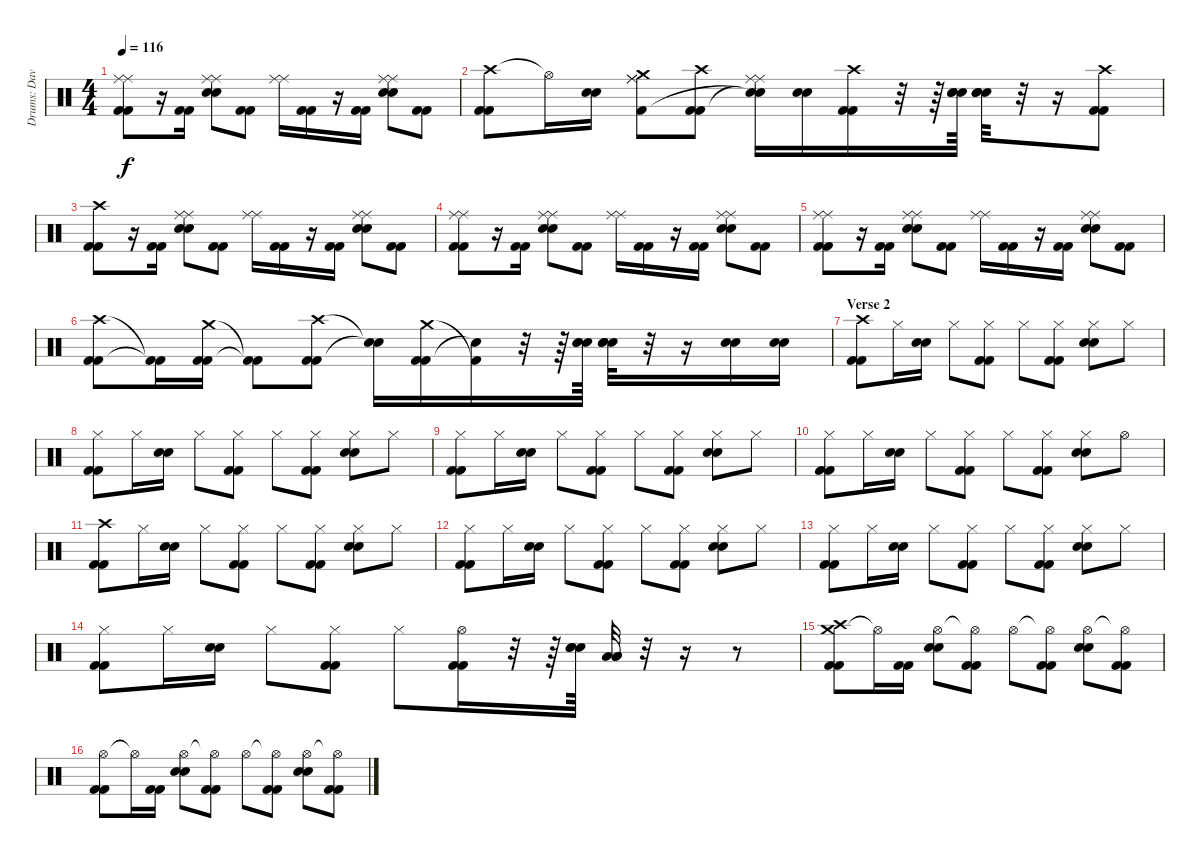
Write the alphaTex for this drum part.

\track ("Drums: Dave Krusen" "Drums: Dav") {instrument percussion}
\staff {score}
\articulation defaults
\ts (4 4)
\tempo 116
\clef neutral
\ks c
("Ride (middle)" "Ride (middle)" "Kick (hit) 2" "Kick (hit) 2").8{dy f} r.16 ("Kick (hit) 2" "Kick (hit) 2").16 ("Ride (middle)" "Ride (middle)" "Electric Snare (hit)" "Electric Snare (hit)").8 ("Kick (hit) 2" "Kick (hit) 2").8 ("Ride (middle)" "Ride (middle)").16 ("Kick (hit) 2" "Kick (hit) 2").16 r.16 ("Kick (hit) 2" "Kick (hit) 2").16 ("Ride (middle)" "Ride (middle)" "Electric Snare (hit)" "Electric Snare (hit)").8 ("Kick (hit) 2" "Kick (hit) 2").8 |
("Crash high (hit)" "Kick (hit) 2" "Kick (hit) 2").8 "Hi-Hat (open)"{t}.16 ("Electric Snare (hit)" "Electric Snare (hit)").16 ("Ride (middle)" "Ride (middle)" "Crash medium (hit)" "Kick (hit) 2").8 ("Crash high (hit)" "Kick (hit) 2" "Kick (hit) 2").8 ("Ride (middle)" "Ride (middle)" "Electric Snare (hit)"{t} "Snare (hit)"{t}).16 ("Electric Snare (hit)" "Electric Snare (hit)").16 ("Crash high (hit)" "Kick (hit) 2" "Kick (hit) 2").16 r.32 r.64 ("Electric Snare (hit)" "Electric Snare (hit)" "Electric Snare (hit)").64 ("Electric Snare (hit)" "Electric Snare (hit)" "Electric Snare (hit)").32 r.32 r.16 ("Crash high (hit)" "Kick (hit) 2" "Kick (hit) 2").8 |
("Crash high (hit)" "Kick (hit) 2" "Kick (hit) 2").8 r.16 ("Kick (hit) 2" "Kick (hit) 2").16 ("Ride (middle)" "Ride (middle)" "Electric Snare (hit)" "Electric Snare (hit)").8 ("Kick (hit) 2" "Kick (hit) 2").8 ("Ride (middle)" "Ride (middle)").16 ("Kick (hit) 2" "Kick (hit) 2").16 r.16 ("Kick (hit) 2" "Kick (hit) 2").16 ("Ride (middle)" "Ride (middle)" "Electric Snare (hit)" "Electric Snare (hit)").8 ("Kick (hit) 2" "Kick (hit) 2").8 |
("Ride (middle)" "Ride (middle)" "Kick (hit) 2" "Kick (hit) 2").8 r.16 ("Kick (hit) 2" "Kick (hit) 2").16 ("Ride (middle)" "Ride (middle)" "Electric Snare (hit)" "Electric Snare (hit)").8 ("Kick (hit) 2" "Kick (hit) 2").8 ("Ride (middle)" "Ride (middle)").16 ("Kick (hit) 2" "Kick (hit) 2").16 r.16 ("Kick (hit) 2" "Kick (hit) 2").16 ("Ride (middle)" "Ride (middle)" "Electric Snare (hit)" "Electric Snare (hit)").8 ("Kick (hit) 2" "Kick (hit) 2").8 |
("Ride (middle)" "Ride (middle)" "Kick (hit) 2" "Kick (hit) 2").8 r.16 ("Kick (hit) 2" "Kick (hit) 2").16 ("Ride (middle)" "Ride (middle)" "Electric Snare (hit)" "Electric Snare (hit)").8 ("Kick (hit) 2" "Kick (hit) 2").8 ("Ride (middle)" "Ride (middle)").16 ("Kick (hit) 2" "Kick (hit) 2").16 r.16 ("Kick (hit) 2" "Kick (hit) 2").16 ("Ride (middle)" "Ride (middle)" "Electric Snare (hit)" "Electric Snare (hit)").8 ("Kick (hit) 2" "Kick (hit) 2").8 |
("Crash high (hit)" "Kick (hit) 2" "Kick (hit) 2").8 ("Kick (hit) 2"{t} "Kick (hit) 2"{t}).16 ("Crash medium (hit)" "Kick (hit) 2" "Kick (hit) 2").16 ("Kick (hit) 2"{t} "Kick (hit) 2"{t}).8 ("Crash high (hit)" "Kick (hit) 2" "Kick (hit) 2").8 ("Electric Snare (hit)"{t} "Snare (hit)"{t}).16 ("Crash medium (hit)" "Kick (hit) 2" "Kick (hit) 2").16 ("Kick (hit) 2"{t} "Snare (hit)"{t}).16 r.32 r.64 ("Electric Snare (hit)" "Electric Snare (hit)" "Electric Snare (hit)").64 ("Electric Snare (hit)" "Electric Snare (hit)" "Electric Snare (hit)").32 r.32 r.16 ("Electric Snare (hit)" "Electric Snare (hit)").16 ("Electric Snare (hit)" "Electric Snare (hit)").16 |
\section ("" "Verse 2")
("Crash high (hit)" "Kick (hit) 2" "Kick (hit) 2").8 "Hi-Hat (closed)".16 ("Electric Snare (hit)" "Electric Snare (hit)").16 "Hi-Hat (closed)".8 ("Hi-Hat (closed)" "Kick (hit) 2" "Kick (hit) 2").8 "Hi-Hat (closed)".8 ("Hi-Hat (closed)" "Kick (hit) 2" "Kick (hit) 2").8 ("Hi-Hat (closed)" "Electric Snare (hit)" "Electric Snare (hit)").8 "Hi-Hat (closed)".8 |
("Hi-Hat (closed)" "Kick (hit) 2" "Kick (hit) 2").8 "Hi-Hat (closed)".16 ("Electric Snare (hit)" "Electric Snare (hit)").16 "Hi-Hat (closed)".8 ("Hi-Hat (closed)" "Kick (hit) 2" "Kick (hit) 2").8 "Hi-Hat (closed)".8 ("Hi-Hat (closed)" "Kick (hit) 2" "Kick (hit) 2").8 ("Hi-Hat (closed)" "Electric Snare (hit)" "Electric Snare (hit)").8 "Hi-Hat (closed)".8 |
("Hi-Hat (closed)" "Kick (hit) 2" "Kick (hit) 2").8 "Hi-Hat (closed)".16 ("Electric Snare (hit)" "Electric Snare (hit)").16 "Hi-Hat (closed)".8 ("Hi-Hat (closed)" "Kick (hit) 2" "Kick (hit) 2").8 "Hi-Hat (closed)".8 ("Hi-Hat (closed)" "Kick (hit) 2" "Kick (hit) 2").8 ("Hi-Hat (closed)" "Electric Snare (hit)" "Electric Snare (hit)").8 "Hi-Hat (closed)".8 |
("Hi-Hat (closed)" "Kick (hit) 2" "Kick (hit) 2").8 "Hi-Hat (closed)".16 ("Electric Snare (hit)" "Electric Snare (hit)").16 "Hi-Hat (closed)".8 ("Hi-Hat (closed)" "Kick (hit) 2" "Kick (hit) 2").8 "Hi-Hat (closed)".8 ("Hi-Hat (closed)" "Kick (hit) 2" "Kick (hit) 2").8 ("Hi-Hat (closed)" "Electric Snare (hit)" "Electric Snare (hit)").8 "Hi-Hat (open)".8 |
("Crash high (hit)" "Kick (hit) 2" "Kick (hit) 2").8 "Hi-Hat (closed)".16 ("Electric Snare (hit)" "Electric Snare (hit)").16 "Hi-Hat (closed)".8 ("Hi-Hat (closed)" "Kick (hit) 2" "Kick (hit) 2").8 "Hi-Hat (closed)".8 ("Hi-Hat (closed)" "Kick (hit) 2" "Kick (hit) 2").8 ("Hi-Hat (closed)" "Electric Snare (hit)" "Electric Snare (hit)").8 "Hi-Hat (closed)".8 |
("Hi-Hat (closed)" "Kick (hit) 2" "Kick (hit) 2").8 "Hi-Hat (closed)".16 ("Electric Snare (hit)" "Electric Snare (hit)").16 "Hi-Hat (closed)".8 ("Hi-Hat (closed)" "Kick (hit) 2" "Kick (hit) 2").8 "Hi-Hat (closed)".8 ("Hi-Hat (closed)" "Kick (hit) 2" "Kick (hit) 2").8 ("Hi-Hat (closed)" "Electric Snare (hit)" "Electric Snare (hit)").8 "Hi-Hat (closed)".8 |
("Hi-Hat (closed)" "Kick (hit) 2" "Kick (hit) 2").8 "Hi-Hat (closed)".16 ("Electric Snare (hit)" "Electric Snare (hit)").16 "Hi-Hat (closed)".8 ("Hi-Hat (closed)" "Kick (hit) 2" "Kick (hit) 2").8 "Hi-Hat (closed)".8 ("Hi-Hat (closed)" "Kick (hit) 2" "Kick (hit) 2").8 ("Hi-Hat (closed)" "Electric Snare (hit)" "Electric Snare (hit)").8 "Hi-Hat (closed)".8 |
("Hi-Hat (closed)" "Kick (hit) 2" "Kick (hit) 2").8 "Hi-Hat (closed)".16 ("Electric Snare (hit)" "Electric Snare (hit)").16 "Hi-Hat (closed)".8 ("Hi-Hat (closed)" "Kick (hit) 2" "Kick (hit) 2").8 "Hi-Hat (closed)".8 ("Hi-Hat (open)" "Kick (hit) 2" "Kick (hit) 2").16 r.32 r.64 ("Electric Snare (hit)" "Electric Snare (hit)" "Electric Snare (hit)").64 ("Low Tom (hit)" "Low Tom (hit)" "Low Tom (hit)").32 r.32 r.16 r.8 |
\section ("" "")
("Crash medium (hit)" "Crash high (hit)" "Kick (hit) 2" "Kick (hit) 2").8 "Hi-Hat (open)"{t}.16 ("Kick (hit) 2" "Kick (hit) 2").16 ("Hi-Hat (open)" "Electric Snare (hit)" "Electric Snare (hit)").8 ("Hi-Hat (open)"{t} "Kick (hit) 2" "Kick (hit) 2").8 "Hi-Hat (open)".8 ("Hi-Hat (open)"{t} "Kick (hit) 2" "Kick (hit) 2").8 ("Hi-Hat (open)" "Electric Snare (hit)" "Electric Snare (hit)").8 ("Hi-Hat (open)"{t} "Kick (hit) 2" "Kick (hit) 2").8 |
("Hi-Hat (open)" "Kick (hit) 2" "Kick (hit) 2").8 "Hi-Hat (open)"{t}.16 ("Kick (hit) 2" "Kick (hit) 2").16 ("Hi-Hat (open)" "Electric Snare (hit)" "Electric Snare (hit)").8 ("Hi-Hat (open)"{t} "Kick (hit) 2" "Kick (hit) 2").8 "Hi-Hat (open)".8 ("Hi-Hat (open)"{t} "Kick (hit) 2" "Kick (hit) 2").8 ("Hi-Hat (open)" "Electric Snare (hit)" "Electric Snare (hit)").8 ("Hi-Hat (open)"{t} "Kick (hit) 2" "Kick (hit) 2").8
